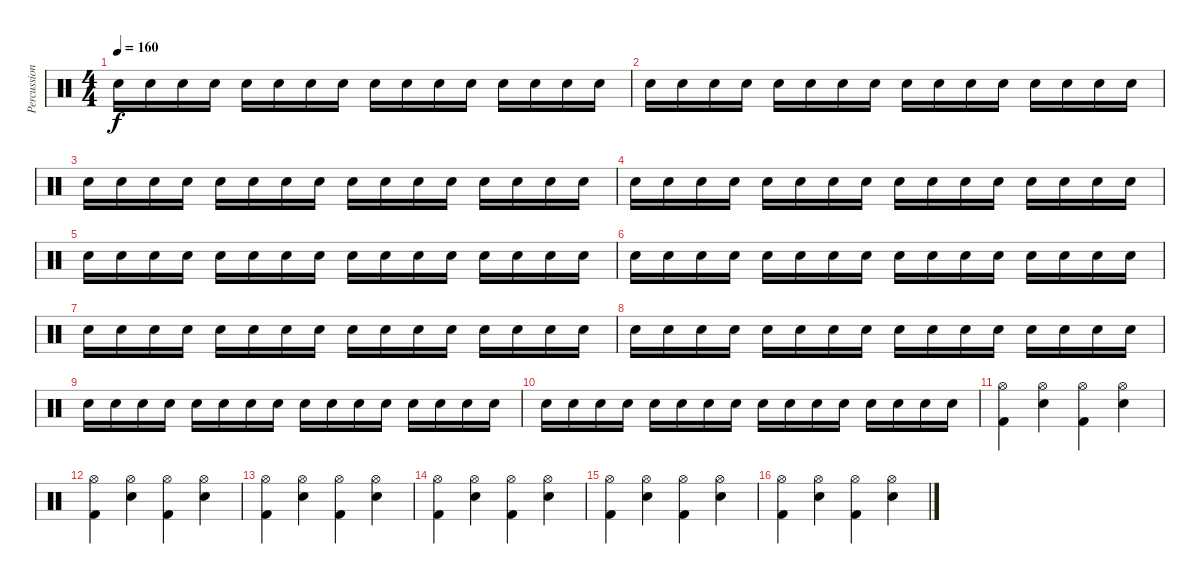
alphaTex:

\track ("Percussion" "Percussion") {instrument percussion}
\staff {score}
\articulation defaults
\ts (4 4)
\tempo 160
\clef neutral
\ks c "Electric Snare (hit)".16{dy f} "Electric Snare (hit)".16 "Electric Snare (hit)".16 "Electric Snare (hit)".16 "Electric Snare (hit)".16 "Electric Snare (hit)".16 "Electric Snare (hit)".16 "Electric Snare (hit)".16 "Electric Snare (hit)".16 "Electric Snare (hit)".16 "Electric Snare (hit)".16 "Electric Snare (hit)".16 "Electric Snare (hit)".16 "Electric Snare (hit)".16 "Electric Snare (hit)".16 "Electric Snare (hit)".16
|
"Electric Snare (hit)".16 "Electric Snare (hit)".16 "Electric Snare (hit)".16 "Electric Snare (hit)".16 "Electric Snare (hit)".16 "Electric Snare (hit)".16 "Electric Snare (hit)".16 "Electric Snare (hit)".16 "Electric Snare (hit)".16 "Electric Snare (hit)".16 "Electric Snare (hit)".16 "Electric Snare (hit)".16 "Electric Snare (hit)".16 "Electric Snare (hit)".16 "Electric Snare (hit)".16 "Electric Snare (hit)".16 |
"Electric Snare (hit)".16 "Electric Snare (hit)".16 "Electric Snare (hit)".16 "Electric Snare (hit)".16 "Electric Snare (hit)".16 "Electric Snare (hit)".16 "Electric Snare (hit)".16 "Electric Snare (hit)".16 "Electric Snare (hit)".16 "Electric Snare (hit)".16 "Electric Snare (hit)".16 "Electric Snare (hit)".16 "Electric Snare (hit)".16 "Electric Snare (hit)".16 "Electric Snare (hit)".16 "Electric Snare (hit)".16 |
"Electric Snare (hit)".16 "Electric Snare (hit)".16 "Electric Snare (hit)".16 "Electric Snare (hit)".16 "Electric Snare (hit)".16 "Electric Snare (hit)".16 "Electric Snare (hit)".16 "Electric Snare (hit)".16 "Electric Snare (hit)".16 "Electric Snare (hit)".16 "Electric Snare (hit)".16 "Electric Snare (hit)".16 "Electric Snare (hit)".16 "Electric Snare (hit)".16 "Electric Snare (hit)".16 "Electric Snare (hit)".16 |
"Electric Snare (hit)".16 "Electric Snare (hit)".16 "Electric Snare (hit)".16 "Electric Snare (hit)".16 "Electric Snare (hit)".16 "Electric Snare (hit)".16 "Electric Snare (hit)".16 "Electric Snare (hit)".16 "Electric Snare (hit)".16 "Electric Snare (hit)".16 "Electric Snare (hit)".16 "Electric Snare (hit)".16 "Electric Snare (hit)".16 "Electric Snare (hit)".16 "Electric Snare (hit)".16 "Electric Snare (hit)".16 |
"Electric Snare (hit)".16 "Electric Snare (hit)".16 "Electric Snare (hit)".16 "Electric Snare (hit)".16 "Electric Snare (hit)".16 "Electric Snare (hit)".16 "Electric Snare (hit)".16 "Electric Snare (hit)".16 "Electric Snare (hit)".16 "Electric Snare (hit)".16 "Electric Snare (hit)".16 "Electric Snare (hit)".16 "Electric Snare (hit)".16 "Electric Snare (hit)".16 "Electric Snare (hit)".16 "Electric Snare (hit)".16 |
"Electric Snare (hit)".16 "Electric Snare (hit)".16 "Electric Snare (hit)".16 "Electric Snare (hit)".16 "Electric Snare (hit)".16 "Electric Snare (hit)".16 "Electric Snare (hit)".16 "Electric Snare (hit)".16 "Electric Snare (hit)".16 "Electric Snare (hit)".16 "Electric Snare (hit)".16 "Electric Snare (hit)".16 "Electric Snare (hit)".16 "Electric Snare (hit)".16 "Electric Snare (hit)".16 "Electric Snare (hit)".16 |
"Electric Snare (hit)".16 "Electric Snare (hit)".16 "Electric Snare (hit)".16 "Electric Snare (hit)".16 "Electric Snare (hit)".16 "Electric Snare (hit)".16 "Electric Snare (hit)".16 "Electric Snare (hit)".16 "Electric Snare (hit)".16 "Electric Snare (hit)".16 "Electric Snare (hit)".16 "Electric Snare (hit)".16 "Electric Snare (hit)".16 "Electric Snare (hit)".16 "Electric Snare (hit)".16 "Electric Snare (hit)".16 |
"Electric Snare (hit)".16 "Electric Snare (hit)".16 "Electric Snare (hit)".16 "Electric Snare (hit)".16 "Electric Snare (hit)".16 "Electric Snare (hit)".16 "Electric Snare (hit)".16 "Electric Snare (hit)".16 "Electric Snare (hit)".16 "Electric Snare (hit)".16 "Electric Snare (hit)".16 "Electric Snare (hit)".16 "Electric Snare (hit)".16 "Electric Snare (hit)".16 "Electric Snare (hit)".16 "Electric Snare (hit)".16 |
"Electric Snare (hit)".16 "Electric Snare (hit)".16 "Electric Snare (hit)".16 "Electric Snare (hit)".16 "Electric Snare (hit)".16 "Electric Snare (hit)".16 "Electric Snare (hit)".16 "Electric Snare (hit)".16 "Electric Snare (hit)".16 "Electric Snare (hit)".16 "Electric Snare (hit)".16 "Electric Snare (hit)".16 "Electric Snare (hit)".16 "Electric Snare (hit)".16 "Electric Snare (hit)".16 "Electric Snare (hit)".16 |
("Hi-Hat (open)" "Kick (hit) 2").4 ("Hi-Hat (open)" "Snare (hit) 2").4 ("Hi-Hat (open)" "Kick (hit) 2").4 ("Hi-Hat (open)" "Snare (hit) 2").4 |
("Hi-Hat (open)" "Kick (hit) 2").4 ("Hi-Hat (open)" "Snare (hit) 2").4 ("Hi-Hat (open)" "Kick (hit) 2").4 ("Hi-Hat (open)" "Snare (hit) 2").4 |
("Hi-Hat (open)" "Kick (hit) 2").4 ("Hi-Hat (open)" "Snare (hit) 2").4 ("Hi-Hat (open)" "Kick (hit) 2").4 ("Hi-Hat (open)" "Snare (hit) 2").4 |
("Hi-Hat (open)" "Kick (hit) 2").4 ("Hi-Hat (open)" "Snare (hit) 2").4 ("Hi-Hat (open)" "Kick (hit) 2").4 ("Hi-Hat (open)" "Snare (hit) 2").4 |
("Hi-Hat (open)" "Kick (hit) 2").4 ("Hi-Hat (open)" "Snare (hit) 2").4 ("Hi-Hat (open)" "Kick (hit) 2").4 ("Hi-Hat (open)" "Snare (hit) 2").4 |
("Hi-Hat (open)" "Kick (hit) 2").4 ("Hi-Hat (open)" "Snare (hit) 2").4 ("Hi-Hat (open)" "Kick (hit) 2").4 ("Hi-Hat (open)" "Snare (hit) 2").4
